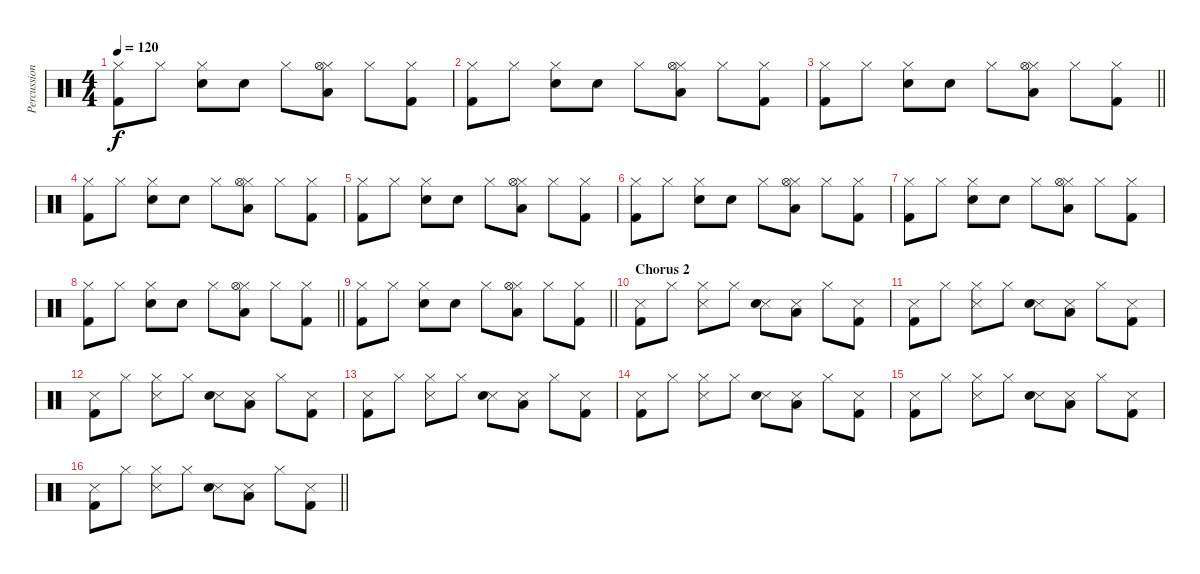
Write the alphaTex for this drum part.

\track ("Percussion" "Percussion") {instrument percussion}
\staff {score}
\articulation defaults
\ts (4 4)
\tempo 120
\clef neutral
\ks c
("Hi-Hat (closed)" "Kick (hit) 2").8{dy f} "Hi-Hat (closed)".8 ("Hi-Hat (closed)" "Snare (hit) 2").8 "Hand Clap (hit)".8 "Hi-Hat (closed)".8 ("Hi-Hat (closed)" "Low Floor Tom (hit)" "Hi-Hat (open)").8 "Hi-Hat (closed)".8 ("Hi-Hat (closed)" "Kick (hit) 2").8 |
("Hi-Hat (closed)" "Kick (hit) 2").8 "Hi-Hat (closed)".8 ("Hi-Hat (closed)" "Snare (hit) 2").8 "Hand Clap (hit)".8 "Hi-Hat (closed)".8 ("Hi-Hat (closed)" "Low Floor Tom (hit)" "Hi-Hat (open)").8 "Hi-Hat (closed)".8 ("Hi-Hat (closed)" "Kick (hit) 2").8 |
\barLineRight lightlight
("Hi-Hat (closed)" "Kick (hit) 2").8 "Hi-Hat (closed)".8 ("Hi-Hat (closed)" "Snare (hit) 2").8 "Hand Clap (hit)".8 "Hi-Hat (closed)".8 ("Hi-Hat (closed)" "Low Floor Tom (hit)" "Hi-Hat (open)").8 "Hi-Hat (closed)".8 ("Hi-Hat (closed)" "Kick (hit) 2").8 |
("Hi-Hat (closed)" "Kick (hit) 2").8 "Hi-Hat (closed)".8 ("Hi-Hat (closed)" "Snare (hit) 2").8 "Hand Clap (hit)".8 "Hi-Hat (closed)".8 ("Hi-Hat (closed)" "Low Floor Tom (hit)" "Hi-Hat (open)").8 "Hi-Hat (closed)".8 ("Hi-Hat (closed)" "Kick (hit) 2").8 |
("Hi-Hat (closed)" "Kick (hit) 2").8 "Hi-Hat (closed)".8 ("Hi-Hat (closed)" "Snare (hit) 2").8 "Hand Clap (hit)".8 "Hi-Hat (closed)".8 ("Hi-Hat (closed)" "Low Floor Tom (hit)" "Hi-Hat (open)").8 "Hi-Hat (closed)".8 ("Hi-Hat (closed)" "Kick (hit) 2").8 |
("Hi-Hat (closed)" "Kick (hit) 2").8 "Hi-Hat (closed)".8 ("Hi-Hat (closed)" "Snare (hit) 2").8 "Hand Clap (hit)".8 "Hi-Hat (closed)".8 ("Hi-Hat (closed)" "Low Floor Tom (hit)" "Hi-Hat (open)").8 "Hi-Hat (closed)".8 ("Hi-Hat (closed)" "Kick (hit) 2").8 |
("Hi-Hat (closed)" "Kick (hit) 2").8 "Hi-Hat (closed)".8 ("Hi-Hat (closed)" "Snare (hit) 2").8 "Hand Clap (hit)".8 "Hi-Hat (closed)".8 ("Hi-Hat (closed)" "Low Floor Tom (hit)" "Hi-Hat (open)").8 "Hi-Hat (closed)".8 ("Hi-Hat (closed)" "Kick (hit) 2").8 |
\barLineRight lightlight
("Hi-Hat (closed)" "Kick (hit) 2").8 "Hi-Hat (closed)".8 ("Hi-Hat (closed)" "Snare (hit) 2").8 "Hand Clap (hit)".8 "Hi-Hat (closed)".8 ("Hi-Hat (closed)" "Low Floor Tom (hit)" "Hi-Hat (open)").8 "Hi-Hat (closed)".8 ("Hi-Hat (closed)" "Kick (hit) 2").8 |
\barLineRight lightlight
("Hi-Hat (closed)" "Kick (hit) 2").8 "Hi-Hat (closed)".8 ("Hi-Hat (closed)" "Snare (hit) 2").8 "Hand Clap (hit)".8 "Hi-Hat (closed)".8 ("Hi-Hat (closed)" "Low Floor Tom (hit)" "Hi-Hat (open)").8 "Hi-Hat (closed)".8 ("Hi-Hat (closed)" "Kick (hit) 2").8 |
\section ("" "Chorus 2")
("Snare (side stick) 3" "Kick (hit) 2").8 "Hi-Hat (closed)".8 ("Snare (side stick) 3" "Hi-Hat (closed)").8 "Hi-Hat (closed)".8 ("Snare (side stick) 3" "Snare (hit) 2").8 ("Snare (side stick) 3" "Low Floor Tom (hit)").8 "Hi-Hat (closed)".8 ("Snare (side stick) 3" "Kick (hit) 2").8 |
("Snare (side stick) 3" "Kick (hit) 2").8 "Hi-Hat (closed)".8 ("Snare (side stick) 3" "Hi-Hat (closed)").8 "Hi-Hat (closed)".8 ("Snare (side stick) 3" "Snare (hit) 2").8 ("Snare (side stick) 3" "Low Floor Tom (hit)").8 "Hi-Hat (closed)".8 ("Snare (side stick) 3" "Kick (hit) 2").8 |
("Snare (side stick) 3" "Kick (hit) 2").8 "Hi-Hat (closed)".8 ("Snare (side stick) 3" "Hi-Hat (closed)").8 "Hi-Hat (closed)".8 ("Snare (side stick) 3" "Snare (hit) 2").8 ("Snare (side stick) 3" "Low Floor Tom (hit)").8 "Hi-Hat (closed)".8 ("Snare (side stick) 3" "Kick (hit) 2").8 |
("Snare (side stick) 3" "Kick (hit) 2").8 "Hi-Hat (closed)".8 ("Snare (side stick) 3" "Hi-Hat (closed)").8 "Hi-Hat (closed)".8 ("Snare (side stick) 3" "Snare (hit) 2").8 ("Snare (side stick) 3" "Low Floor Tom (hit)").8 "Hi-Hat (closed)".8 ("Snare (side stick) 3" "Kick (hit) 2").8 |
("Snare (side stick) 3" "Kick (hit) 2").8 "Hi-Hat (closed)".8 ("Snare (side stick) 3" "Hi-Hat (closed)").8 "Hi-Hat (closed)".8 ("Snare (side stick) 3" "Snare (hit) 2").8 ("Snare (side stick) 3" "Low Floor Tom (hit)").8 "Hi-Hat (closed)".8 ("Snare (side stick) 3" "Kick (hit) 2").8 |
("Snare (side stick) 3" "Kick (hit) 2").8 "Hi-Hat (closed)".8 ("Snare (side stick) 3" "Hi-Hat (closed)").8 "Hi-Hat (closed)".8 ("Snare (side stick) 3" "Snare (hit) 2").8 ("Snare (side stick) 3" "Low Floor Tom (hit)").8 "Hi-Hat (closed)".8 ("Snare (side stick) 3" "Kick (hit) 2").8 |
\barLineRight lightlight
("Snare (side stick) 3" "Kick (hit) 2").8 "Hi-Hat (closed)".8 ("Snare (side stick) 3" "Hi-Hat (closed)").8 "Hi-Hat (closed)".8 ("Snare (side stick) 3" "Snare (hit) 2").8 ("Snare (side stick) 3" "Low Floor Tom (hit)").8 "Hi-Hat (closed)".8 ("Snare (side stick) 3" "Kick (hit) 2").8
